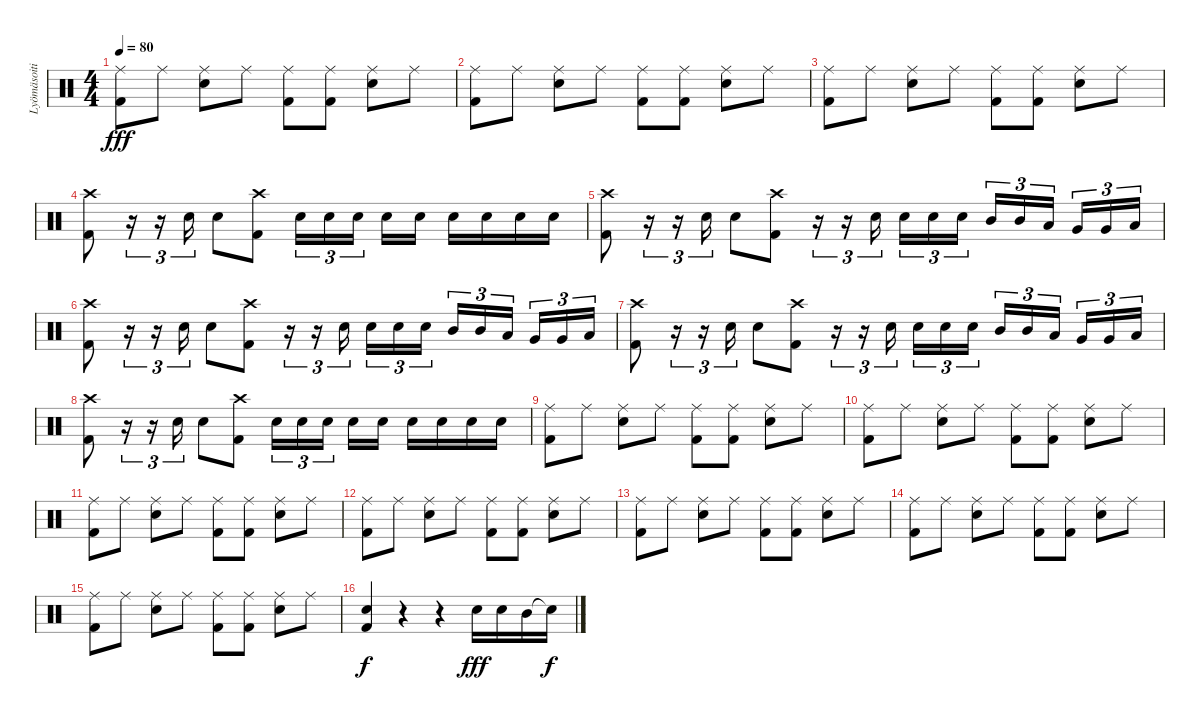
\track ("Lyömäsoitin" "Lyömäsoiti") {instrument percussion}
\staff {score}
\articulation defaults
\ts (4 4)
\tempo 80
\clef neutral
\ks c
("Ride (middle)" "Kick (hit) 2").8{dy fff} "Ride (middle)".8 ("Ride (middle)" "Electric Snare (hit)").8 "Ride (middle)".8 ("Ride (middle)" "Kick (hit) 2").8 ("Ride (middle)" "Kick (hit) 2").8 ("Ride (middle)" "Electric Snare (hit)").8 "Ride (middle)".8 |
("Ride (middle)" "Kick (hit) 2").8 "Ride (middle)".8 ("Ride (middle)" "Electric Snare (hit)").8 "Ride (middle)".8 ("Ride (middle)" "Kick (hit) 2").8 ("Ride (middle)" "Kick (hit) 2").8 ("Ride (middle)" "Electric Snare (hit)").8 "Ride (middle)".8 |
("Ride (middle)" "Kick (hit) 2").8 "Ride (middle)".8 ("Ride (middle)" "Electric Snare (hit)").8 "Ride (middle)".8 ("Ride (middle)" "Kick (hit) 2").8 ("Ride (middle)" "Kick (hit) 2").8 ("Ride (middle)" "Electric Snare (hit)").8 "Ride (middle)".8 |
("Crash high (hit)" "Kick (hit) 2").8 r.16{tu (3 2)} r.16{tu (3 2)} "Electric Snare (hit)".16{tu (3 2)} "Electric Snare (hit)".8 ("Crash high (hit)" "Kick (hit) 2").8 "Electric Snare (hit)".16{tu (3 2)} "Electric Snare (hit)".16{tu (3 2)} "Electric Snare (hit)".16{tu (3 2) beam splitsecondary} "Electric Snare (hit)".16 "Electric Snare (hit)".16 "Electric Snare (hit)".16 "Electric Snare (hit)".16 "Electric Snare (hit)".16 "Electric Snare (hit)".16 |
("Crash high (hit)" "Kick (hit) 2").8 r.16{tu (3 2)} r.16{tu (3 2)} "Electric Snare (hit)".16{tu (3 2)} "Electric Snare (hit)".8 ("Crash high (hit)" "Kick (hit) 2").8 r.16{tu (3 2)} r.16{tu (3 2)} "Electric Snare (hit)".16{tu (3 2) beam splitsecondary} "Electric Snare (hit)".16{tu (3 2)} "Electric Snare (hit)".16{tu (3 2)} "Electric Snare (hit)".16{tu (3 2)} "Mid Tom (hit)".16{tu (3 2)} "Mid Tom (hit)".16{tu (3 2)} "Low Tom (hit)".16{tu (3 2) beam splitsecondary} "Very Low Tom (hit)".16{tu (3 2)} "Very Low Tom (hit)".16{tu (3 2)} "Low Floor Tom (hit)".16{tu (3 2)} |
("Crash high (hit)" "Kick (hit) 2").8 r.16{tu (3 2)} r.16{tu (3 2)} "Electric Snare (hit)".16{tu (3 2)} "Electric Snare (hit)".8 ("Crash high (hit)" "Kick (hit) 2").8 r.16{tu (3 2)} r.16{tu (3 2)} "Electric Snare (hit)".16{tu (3 2) beam splitsecondary} "Electric Snare (hit)".16{tu (3 2)} "Electric Snare (hit)".16{tu (3 2)} "Electric Snare (hit)".16{tu (3 2)} "Mid Tom (hit)".16{tu (3 2)} "Mid Tom (hit)".16{tu (3 2)} "Low Tom (hit)".16{tu (3 2) beam splitsecondary} "Very Low Tom (hit)".16{tu (3 2)} "Very Low Tom (hit)".16{tu (3 2)} "Low Floor Tom (hit)".16{tu (3 2)} |
("Crash high (hit)" "Kick (hit) 2").8 r.16{tu (3 2)} r.16{tu (3 2)} "Electric Snare (hit)".16{tu (3 2)} "Electric Snare (hit)".8 ("Crash high (hit)" "Kick (hit) 2").8 r.16{tu (3 2)} r.16{tu (3 2)} "Electric Snare (hit)".16{tu (3 2) beam splitsecondary} "Electric Snare (hit)".16{tu (3 2)} "Electric Snare (hit)".16{tu (3 2)} "Electric Snare (hit)".16{tu (3 2)} "Mid Tom (hit)".16{tu (3 2)} "Mid Tom (hit)".16{tu (3 2)} "Low Tom (hit)".16{tu (3 2) beam splitsecondary} "Very Low Tom (hit)".16{tu (3 2)} "Very Low Tom (hit)".16{tu (3 2)} "Low Floor Tom (hit)".16{tu (3 2)} |
("Crash high (hit)" "Kick (hit) 2").8 r.16{tu (3 2)} r.16{tu (3 2)} "Electric Snare (hit)".16{tu (3 2)} "Electric Snare (hit)".8 ("Crash high (hit)" "Kick (hit) 2").8 "Electric Snare (hit)".16{tu (3 2)} "Electric Snare (hit)".16{tu (3 2)} "Electric Snare (hit)".16{tu (3 2) beam splitsecondary} "Electric Snare (hit)".16 "Electric Snare (hit)".16 "Electric Snare (hit)".16 "Electric Snare (hit)".16 "Electric Snare (hit)".16 "Electric Snare (hit)".16 |
("Ride (middle)" "Kick (hit) 2").8 "Ride (middle)".8 ("Ride (middle)" "Electric Snare (hit)").8 "Ride (middle)".8 ("Ride (middle)" "Kick (hit) 2").8 ("Ride (middle)" "Kick (hit) 2").8 ("Ride (middle)" "Electric Snare (hit)").8 "Ride (middle)".8 |
("Ride (middle)" "Kick (hit) 2").8 "Ride (middle)".8 ("Ride (middle)" "Electric Snare (hit)").8 "Ride (middle)".8 ("Ride (middle)" "Kick (hit) 2").8 ("Ride (middle)" "Kick (hit) 2").8 ("Ride (middle)" "Electric Snare (hit)").8 "Ride (middle)".8 |
("Ride (middle)" "Kick (hit) 2").8 "Ride (middle)".8 ("Ride (middle)" "Electric Snare (hit)").8 "Ride (middle)".8 ("Ride (middle)" "Kick (hit) 2").8 ("Ride (middle)" "Kick (hit) 2").8 ("Ride (middle)" "Electric Snare (hit)").8 "Ride (middle)".8 |
("Ride (middle)" "Kick (hit) 2").8 "Ride (middle)".8 ("Ride (middle)" "Electric Snare (hit)").8 "Ride (middle)".8 ("Ride (middle)" "Kick (hit) 2").8 ("Ride (middle)" "Kick (hit) 2").8 ("Ride (middle)" "Electric Snare (hit)").8 "Ride (middle)".8 |
("Ride (middle)" "Kick (hit) 2").8 "Ride (middle)".8 ("Ride (middle)" "Electric Snare (hit)").8 "Ride (middle)".8 ("Ride (middle)" "Kick (hit) 2").8 ("Ride (middle)" "Kick (hit) 2").8 ("Ride (middle)" "Electric Snare (hit)").8 "Ride (middle)".8 |
("Ride (middle)" "Kick (hit) 2").8 "Ride (middle)".8 ("Ride (middle)" "Electric Snare (hit)").8 "Ride (middle)".8 ("Ride (middle)" "Kick (hit) 2").8 ("Ride (middle)" "Kick (hit) 2").8 ("Ride (middle)" "Electric Snare (hit)").8 "Ride (middle)".8 |
("Ride (middle)" "Kick (hit) 2").8 "Ride (middle)".8 ("Ride (middle)" "Electric Snare (hit)").8 "Ride (middle)".8 ("Ride (middle)" "Kick (hit) 2").8 ("Ride (middle)" "Kick (hit) 2").8 ("Ride (middle)" "Electric Snare (hit)").8 "Ride (middle)".8 |
("Electric Snare (hit)" "Kick (hit) 2").4{dy f} r.4 r.4 "Electric Snare (hit)".16{dy fff} "Electric Snare (hit)".16 "Mid Tom (hit)".16 "Snare (hit)"{t}.16{dy f}
